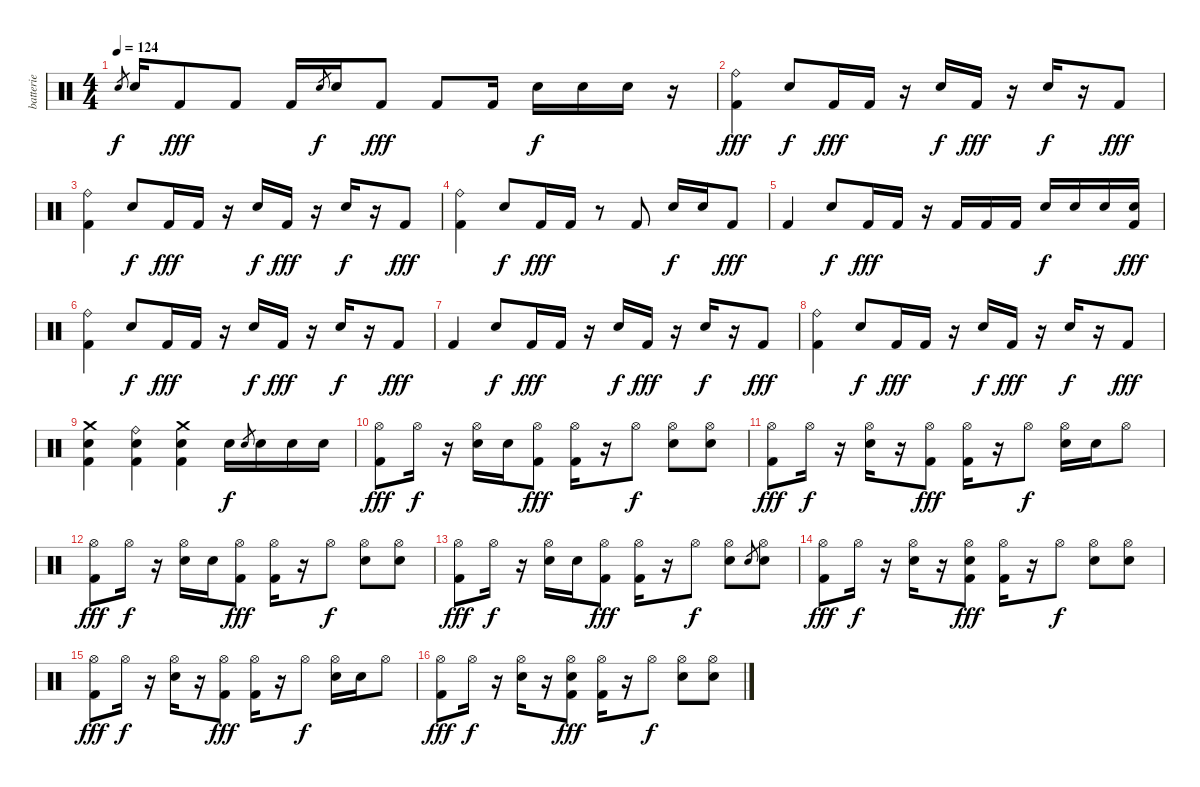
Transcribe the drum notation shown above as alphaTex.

\track ("batterie" "batterie") {instrument percussion}
\staff {score}
\articulation defaults
\ts (4 4)
\tempo 124
\clef neutral
\ks c "Electric Snare (hit)".8{gr dy f} "Electric Snare (hit)".16 "Kick (hit) 2".8{dy fff} "Kick (hit) 2".8 "Kick (hit) 2".16 "Electric Snare (hit)".8{gr dy f} "Electric Snare (hit)".16 "Kick (hit) 2".8{dy fff} "Kick (hit) 2".8 "Kick (hit) 2".16 "Electric Snare (hit)".16{dy f} "Electric Snare (hit)".16 "Electric Snare (hit)".16
r.16 |
("Ride (bell)" "Kick (hit) 2").4{dy fff} "Electric Snare (hit)".8{dy f} "Kick (hit) 2".16{dy fff} "Kick (hit) 2".16 r.16 "Electric Snare (hit)".16{dy f} "Kick (hit) 2".16{dy fff} r.16 "Electric Snare (hit)".16{dy f} r.16 "Kick (hit) 2".8{dy fff} |
("Ride (bell)" "Kick (hit) 2").4 "Electric Snare (hit)".8{dy f} "Kick (hit) 2".16{dy fff} "Kick (hit) 2".16 r.16 "Electric Snare (hit)".16{dy f} "Kick (hit) 2".16{dy fff} r.16 "Electric Snare (hit)".16{dy f} r.16 "Kick (hit) 2".8{dy fff} |
("Ride (bell)" "Kick (hit) 2").4 "Electric Snare (hit)".8{dy f} "Kick (hit) 2".16{dy fff} "Kick (hit) 2".16 r.8 "Kick (hit) 2".8 "Electric Snare (hit)".16{dy f} "Electric Snare (hit)".16 "Kick (hit) 2".8{dy fff} |
"Kick (hit) 2".4 "Electric Snare (hit)".8{dy f} "Kick (hit) 2".16{dy fff} "Kick (hit) 2".16 r.16 "Kick (hit) 2".16 "Kick (hit) 2".16 "Kick (hit) 2".16 "Electric Snare (hit)".16{dy f} "Electric Snare (hit)".16 "Electric Snare (hit)".16 ("Electric Snare (hit)" "Kick (hit) 2").16{dy fff} |
("Ride (bell)" "Kick (hit) 2").4 "Electric Snare (hit)".8{dy f} "Kick (hit) 2".16{dy fff} "Kick (hit) 2".16 r.16 "Electric Snare (hit)".16{dy f} "Kick (hit) 2".16{dy fff} r.16 "Electric Snare (hit)".16{dy f} r.16 "Kick (hit) 2".8{dy fff} |
"Kick (hit) 2".4 "Electric Snare (hit)".8{dy f} "Kick (hit) 2".16{dy fff} "Kick (hit) 2".16 r.16 "Electric Snare (hit)".16{dy f} "Kick (hit) 2".16{dy fff} r.16 "Electric Snare (hit)".16{dy f} r.16 "Kick (hit) 2".8{dy fff} |
("Ride (bell)" "Kick (hit) 2").4 "Electric Snare (hit)".8{dy f} "Kick (hit) 2".16{dy fff} "Kick (hit) 2".16 r.16 "Electric Snare (hit)".16{dy f} "Kick (hit) 2".16{dy fff} r.16 "Electric Snare (hit)".16{dy f} r.16 "Kick (hit) 2".8{dy fff} |
("Crash medium (hit)" "Electric Snare (hit)" "Kick (hit) 2").4 ("Ride (bell)" "Electric Snare (hit)" "Kick (hit) 2").4 ("Crash medium (hit)" "Electric Snare (hit)" "Kick (hit) 2").4 "Electric Snare (hit)".16{dy f} "Electric Snare (hit)".8{gr} "Electric Snare (hit)".16 "Electric Snare (hit)".16 "Electric Snare (hit)".16 |
("Hi-Hat (open)" "Kick (hit) 2").8{dy fff} "Hi-Hat (open)".16{dy f} r.16 ("Hi-Hat (open)" "Electric Snare (hit)").16 "Electric Snare (hit)".16 ("Hi-Hat (open)" "Kick (hit) 2").8{dy fff} ("Hi-Hat (open)" "Kick (hit) 2").16 r.16 "Hi-Hat (open)".8{dy f} ("Hi-Hat (open)" "Electric Snare (hit)").8 ("Hi-Hat (open)" "Electric Snare (hit)").8 |
("Hi-Hat (open)" "Kick (hit) 2").8{dy fff} "Hi-Hat (open)".16{dy f} r.16 ("Hi-Hat (open)" "Electric Snare (hit)").16 r.16 ("Hi-Hat (open)" "Kick (hit) 2").8{dy fff} ("Hi-Hat (open)" "Kick (hit) 2").16 r.16 "Hi-Hat (open)".8{dy f} ("Hi-Hat (open)" "Electric Snare (hit)").16 "Electric Snare (hit)".16 "Hi-Hat (open)".8 |
("Hi-Hat (open)" "Kick (hit) 2").8{dy fff} "Hi-Hat (open)".16{dy f} r.16 ("Hi-Hat (open)" "Electric Snare (hit)").16 "Electric Snare (hit)".16 ("Hi-Hat (open)" "Kick (hit) 2").8{dy fff} ("Hi-Hat (open)" "Kick (hit) 2").16 r.16 "Hi-Hat (open)".8{dy f} ("Hi-Hat (open)" "Electric Snare (hit)").8 ("Hi-Hat (open)" "Electric Snare (hit)").8 |
("Hi-Hat (open)" "Kick (hit) 2").8{dy fff} "Hi-Hat (open)".16{dy f} r.16 ("Hi-Hat (open)" "Electric Snare (hit)").16 "Electric Snare (hit)".16 ("Hi-Hat (open)" "Kick (hit) 2").8{dy fff} ("Hi-Hat (open)" "Kick (hit) 2").16 r.16 "Hi-Hat (open)".8{dy f} ("Hi-Hat (open)" "Electric Snare (hit)").8 "Electric Snare (hit)".8{gr} ("Hi-Hat (open)" "Electric Snare (hit)").8 |
("Hi-Hat (open)" "Kick (hit) 2").8{dy fff} "Hi-Hat (open)".16{dy f} r.16 ("Hi-Hat (open)" "Electric Snare (hit)").16 r.16 ("Hi-Hat (open)" "Electric Snare (hit)" "Kick (hit) 2").8{dy fff} ("Hi-Hat (open)" "Kick (hit) 2").16 r.16 "Hi-Hat (open)".8{dy f} ("Hi-Hat (open)" "Electric Snare (hit)").8 ("Hi-Hat (open)" "Electric Snare (hit)").8 |
("Hi-Hat (open)" "Kick (hit) 2").8{dy fff} "Hi-Hat (open)".16{dy f} r.16 ("Hi-Hat (open)" "Electric Snare (hit)").16 r.16 ("Hi-Hat (open)" "Kick (hit) 2").8{dy fff} ("Hi-Hat (open)" "Kick (hit) 2").16 r.16 "Hi-Hat (open)".8{dy f} ("Hi-Hat (open)" "Electric Snare (hit)").16 "Electric Snare (hit)".16 "Hi-Hat (open)".8 |
("Hi-Hat (open)" "Kick (hit) 2").8{dy fff} "Hi-Hat (open)".16{dy f} r.16 ("Hi-Hat (open)" "Electric Snare (hit)").16 r.16 ("Hi-Hat (open)" "Electric Snare (hit)" "Kick (hit) 2").8{dy fff} ("Hi-Hat (open)" "Kick (hit) 2").16 r.16 "Hi-Hat (open)".8{dy f} ("Hi-Hat (open)" "Electric Snare (hit)").8 ("Hi-Hat (open)" "Electric Snare (hit)").8
